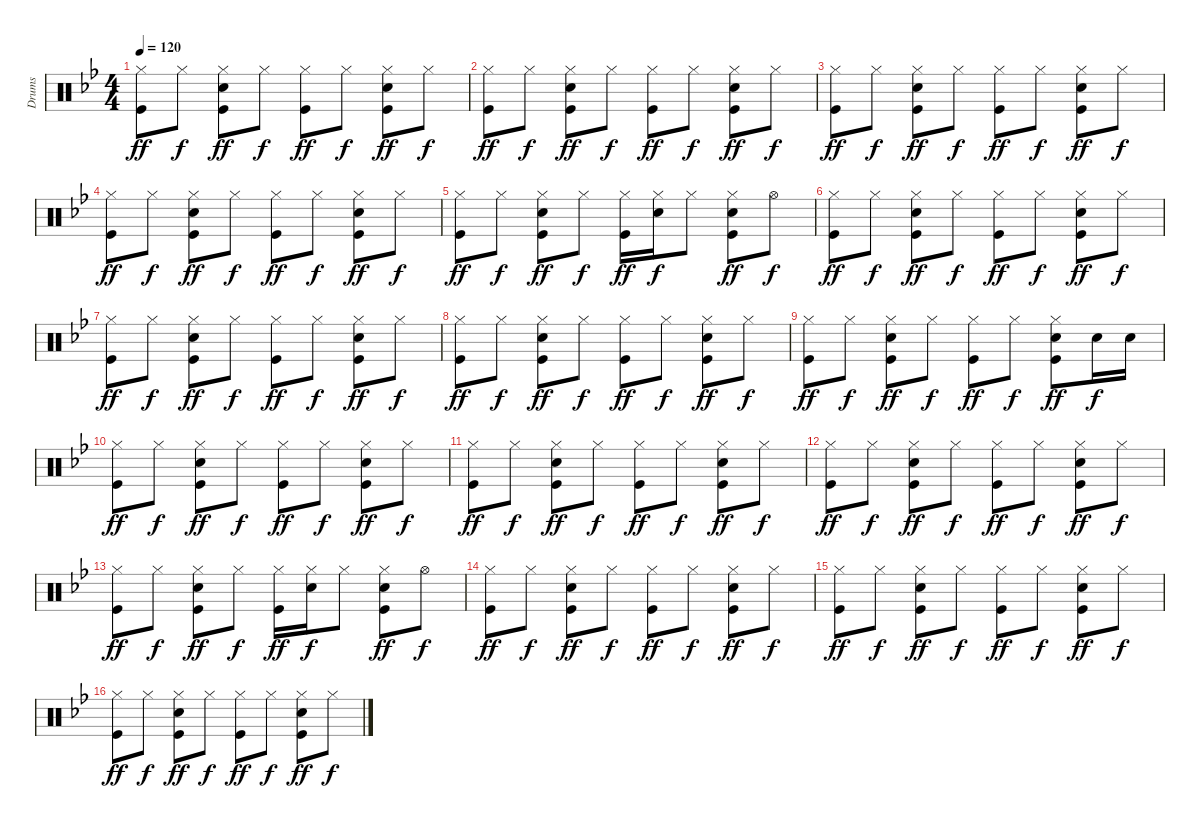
\track ("Drums" "Drums") {instrument percussion}
\staff {score}
\articulation defaults
\ts (4 4)
\tempo 120
\clef neutral
\ks bb
("Hi-Hat (closed)" "Kick (hit)").8{dy ff} "Hi-Hat (closed)".8{dy f} ("Hi-Hat (closed)" "Snare (hit) 2" "Kick (hit)").8{dy ff} "Hi-Hat (closed)".8{dy f} ("Hi-Hat (closed)" "Kick (hit)").8{dy ff} "Hi-Hat (closed)".8{dy f} ("Hi-Hat (closed)" "Snare (hit) 2" "Kick (hit)").8{dy ff} "Hi-Hat (closed)".8{dy f} |
("Hi-Hat (closed)" "Kick (hit)").8{dy ff} "Hi-Hat (closed)".8{dy f} ("Hi-Hat (closed)" "Snare (hit) 2" "Kick (hit)").8{dy ff} "Hi-Hat (closed)".8{dy f} ("Hi-Hat (closed)" "Kick (hit)").8{dy ff} "Hi-Hat (closed)".8{dy f} ("Hi-Hat (closed)" "Snare (hit) 2" "Kick (hit)").8{dy ff} "Hi-Hat (closed)".8{dy f} |
("Hi-Hat (closed)" "Kick (hit)").8{dy ff} "Hi-Hat (closed)".8{dy f} ("Hi-Hat (closed)" "Snare (hit) 2" "Kick (hit)").8{dy ff} "Hi-Hat (closed)".8{dy f} ("Hi-Hat (closed)" "Kick (hit)").8{dy ff} "Hi-Hat (closed)".8{dy f} ("Hi-Hat (closed)" "Snare (hit) 2" "Kick (hit)").8{dy ff} "Hi-Hat (closed)".8{dy f} |
("Hi-Hat (closed)" "Kick (hit)").8{dy ff} "Hi-Hat (closed)".8{dy f} ("Hi-Hat (closed)" "Snare (hit) 2" "Kick (hit)").8{dy ff} "Hi-Hat (closed)".8{dy f} ("Hi-Hat (closed)" "Kick (hit)").8{dy ff} "Hi-Hat (closed)".8{dy f} ("Hi-Hat (closed)" "Snare (hit) 2" "Kick (hit)").8{dy ff} "Hi-Hat (closed)".8{dy f} |
("Hi-Hat (closed)" "Kick (hit)").8{dy ff} "Hi-Hat (closed)".8{dy f} ("Hi-Hat (closed)" "Snare (hit) 2" "Kick (hit)").8{dy ff} "Hi-Hat (closed)".8{dy f} ("Hi-Hat (closed)" "Kick (hit)").16{dy ff} ("Hi-Hat (closed)" "Snare (hit) 2").16{dy f} "Hi-Hat (closed)".8 ("Hi-Hat (closed)" "Snare (hit) 2" "Kick (hit)").8{dy ff} "Hi-Hat (open)".8{dy f} |
("Hi-Hat (closed)" "Kick (hit)").8{dy ff} "Hi-Hat (closed)".8{dy f} ("Hi-Hat (closed)" "Snare (hit) 2" "Kick (hit)").8{dy ff} "Hi-Hat (closed)".8{dy f} ("Hi-Hat (closed)" "Kick (hit)").8{dy ff} "Hi-Hat (closed)".8{dy f} ("Hi-Hat (closed)" "Snare (hit) 2" "Kick (hit)").8{dy ff} "Hi-Hat (closed)".8{dy f} |
("Hi-Hat (closed)" "Kick (hit)").8{dy ff} "Hi-Hat (closed)".8{dy f} ("Hi-Hat (closed)" "Snare (hit) 2" "Kick (hit)").8{dy ff} "Hi-Hat (closed)".8{dy f} ("Hi-Hat (closed)" "Kick (hit)").8{dy ff} "Hi-Hat (closed)".8{dy f} ("Hi-Hat (closed)" "Snare (hit) 2" "Kick (hit)").8{dy ff} "Hi-Hat (closed)".8{dy f} |
("Hi-Hat (closed)" "Kick (hit)").8{dy ff} "Hi-Hat (closed)".8{dy f} ("Hi-Hat (closed)" "Snare (hit) 2" "Kick (hit)").8{dy ff} "Hi-Hat (closed)".8{dy f} ("Hi-Hat (closed)" "Kick (hit)").8{dy ff} "Hi-Hat (closed)".8{dy f} ("Hi-Hat (closed)" "Snare (hit) 2" "Kick (hit)").8{dy ff} "Hi-Hat (closed)".8{dy f} |
("Hi-Hat (closed)" "Kick (hit)").8{dy ff} "Hi-Hat (closed)".8{dy f} ("Hi-Hat (closed)" "Snare (hit) 2" "Kick (hit)").8{dy ff} "Hi-Hat (closed)".8{dy f} ("Hi-Hat (closed)" "Kick (hit)").8{dy ff} "Hi-Hat (closed)".8{dy f} ("Hi-Hat (closed)" "Snare (hit) 2" "Kick (hit)").8{dy ff} "Snare (hit) 2".16{dy f} "Snare (hit) 2".16 |
("Hi-Hat (closed)" "Kick (hit)").8{dy ff} "Hi-Hat (closed)".8{dy f} ("Hi-Hat (closed)" "Snare (hit) 2" "Kick (hit)").8{dy ff} "Hi-Hat (closed)".8{dy f} ("Hi-Hat (closed)" "Kick (hit)").8{dy ff} "Hi-Hat (closed)".8{dy f} ("Hi-Hat (closed)" "Snare (hit) 2" "Kick (hit)").8{dy ff} "Hi-Hat (closed)".8{dy f} |
("Hi-Hat (closed)" "Kick (hit)").8{dy ff} "Hi-Hat (closed)".8{dy f} ("Hi-Hat (closed)" "Snare (hit) 2" "Kick (hit)").8{dy ff} "Hi-Hat (closed)".8{dy f} ("Hi-Hat (closed)" "Kick (hit)").8{dy ff} "Hi-Hat (closed)".8{dy f} ("Hi-Hat (closed)" "Snare (hit) 2" "Kick (hit)").8{dy ff} "Hi-Hat (closed)".8{dy f} |
("Hi-Hat (closed)" "Kick (hit)").8{dy ff} "Hi-Hat (closed)".8{dy f} ("Hi-Hat (closed)" "Snare (hit) 2" "Kick (hit)").8{dy ff} "Hi-Hat (closed)".8{dy f} ("Hi-Hat (closed)" "Kick (hit)").8{dy ff} "Hi-Hat (closed)".8{dy f} ("Hi-Hat (closed)" "Snare (hit) 2" "Kick (hit)").8{dy ff} "Hi-Hat (closed)".8{dy f} |
("Hi-Hat (closed)" "Kick (hit)").8{dy ff} "Hi-Hat (closed)".8{dy f} ("Hi-Hat (closed)" "Snare (hit) 2" "Kick (hit)").8{dy ff} "Hi-Hat (closed)".8{dy f} ("Hi-Hat (closed)" "Kick (hit)").16{dy ff} ("Hi-Hat (closed)" "Snare (hit) 2").16{dy f} "Hi-Hat (closed)".8 ("Hi-Hat (closed)" "Snare (hit) 2" "Kick (hit)").8{dy ff} "Hi-Hat (open)".8{dy f} |
("Hi-Hat (closed)" "Kick (hit)").8{dy ff} "Hi-Hat (closed)".8{dy f} ("Hi-Hat (closed)" "Snare (hit) 2" "Kick (hit)").8{dy ff} "Hi-Hat (closed)".8{dy f} ("Hi-Hat (closed)" "Kick (hit)").8{dy ff} "Hi-Hat (closed)".8{dy f} ("Hi-Hat (closed)" "Snare (hit) 2" "Kick (hit)").8{dy ff} "Hi-Hat (closed)".8{dy f} |
("Hi-Hat (closed)" "Kick (hit)").8{dy ff} "Hi-Hat (closed)".8{dy f} ("Hi-Hat (closed)" "Snare (hit) 2" "Kick (hit)").8{dy ff} "Hi-Hat (closed)".8{dy f} ("Hi-Hat (closed)" "Kick (hit)").8{dy ff} "Hi-Hat (closed)".8{dy f} ("Hi-Hat (closed)" "Snare (hit) 2" "Kick (hit)").8{dy ff} "Hi-Hat (closed)".8{dy f} |
("Hi-Hat (closed)" "Kick (hit)").8{dy ff} "Hi-Hat (closed)".8{dy f} ("Hi-Hat (closed)" "Snare (hit) 2" "Kick (hit)").8{dy ff} "Hi-Hat (closed)".8{dy f} ("Hi-Hat (closed)" "Kick (hit)").8{dy ff} "Hi-Hat (closed)".8{dy f} ("Hi-Hat (closed)" "Snare (hit) 2" "Kick (hit)").8{dy ff} "Hi-Hat (closed)".8{dy f}
